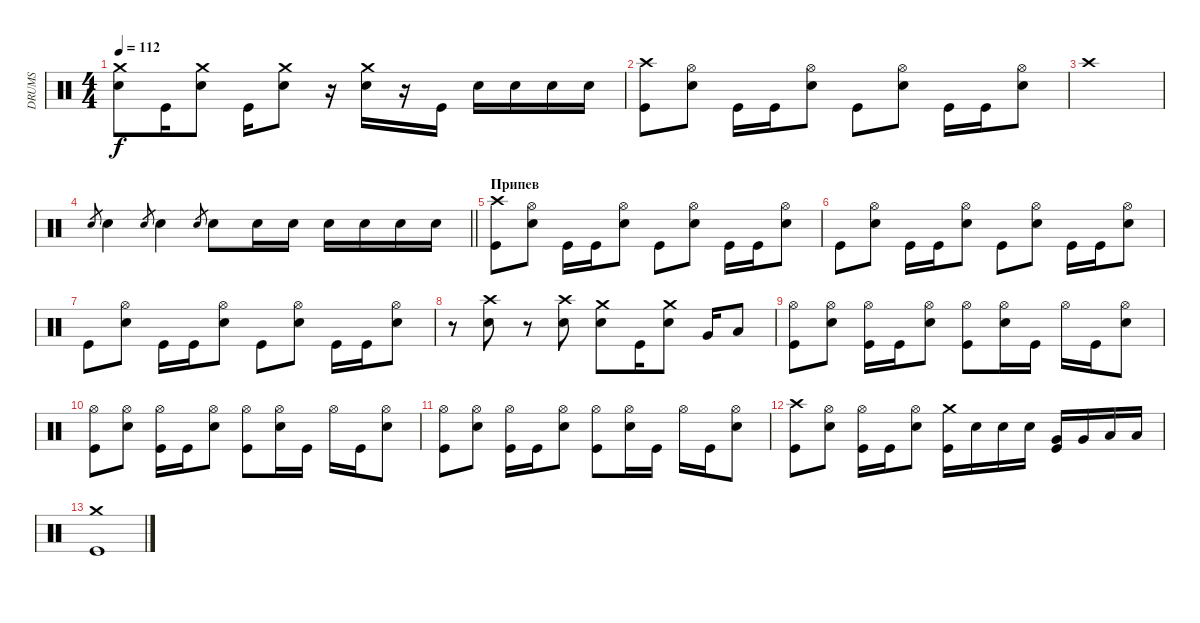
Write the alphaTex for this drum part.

\track ("DRUMS" "DRUMS") {instrument percussion}
\staff {score}
\articulation defaults
\ts (4 4)
\tempo 112
\clef neutral
\ks c
("Crash medium (hit)" "Snare (hit) 2").8{dy f} "Kick (hit)".16 ("Crash medium (hit)" "Snare (hit) 2").8 "Kick (hit)".16 ("Crash medium (hit)" "Snare (hit) 2").8 r.16 ("Crash medium (hit)" "Snare (hit) 2").16 r.16 "Kick (hit)".16 "Snare (hit) 2".16 "Snare (hit) 2".16 "Snare (hit) 2".16 "Snare (hit) 2".16 |
("Crash high (hit)" "Kick (hit)").8 ("Hi-Hat (open)" "Snare (hit) 2").8 "Kick (hit)".16 "Kick (hit)".16 ("Hi-Hat (open)" "Snare (hit) 2").8 "Kick (hit)".8 ("Hi-Hat (open)" "Snare (hit) 2").8 "Kick (hit)".16 "Kick (hit)".16 ("Hi-Hat (open)" "Snare (hit) 2").8 |
"Crash high (hit)".1 |
\barLineRight lightlight "Snare (hit) 2".8{gr} "Snare (hit) 2".4 "Snare (hit) 2".8{gr} "Snare (hit) 2".4 "Snare (hit) 2".8{gr} "Snare (hit) 2".8 "Snare (hit) 2".16 "Snare (hit) 2".16 "Snare (hit) 2".16 "Snare (hit) 2".16 "Snare (hit) 2".16 "Snare (hit) 2".16
|
\section ("" "Припев")
("Crash high (hit)" "Kick (hit)").8 ("Hi-Hat (open)" "Snare (hit) 2").8 "Kick (hit)".16 "Kick (hit)".16 ("Hi-Hat (open)" "Snare (hit) 2").8 "Kick (hit)".8 ("Hi-Hat (open)" "Snare (hit) 2").8 "Kick (hit)".16 "Kick (hit)".16 ("Hi-Hat (open)" "Snare (hit) 2").8 |
"Kick (hit)".8 ("Hi-Hat (open)" "Snare (hit) 2").8 "Kick (hit)".16 "Kick (hit)".16 ("Hi-Hat (open)" "Snare (hit) 2").8 "Kick (hit)".8 ("Hi-Hat (open)" "Snare (hit) 2").8 "Kick (hit)".16 "Kick (hit)".16 ("Hi-Hat (open)" "Snare (hit) 2").8 |
"Kick (hit)".8 ("Hi-Hat (open)" "Snare (hit) 2").8 "Kick (hit)".16 "Kick (hit)".16 ("Hi-Hat (open)" "Snare (hit) 2").8 "Kick (hit)".8 ("Hi-Hat (open)" "Snare (hit) 2").8 "Kick (hit)".16 "Kick (hit)".16 ("Hi-Hat (open)" "Snare (hit) 2").8 |
r.8 ("Crash high (hit)" "Snare (hit) 2").8 r.8 ("Crash high (hit)" "Snare (hit) 2").8 ("Crash medium (hit)" "Snare (hit) 2").8 "Kick (hit)".16 ("Crash medium (hit)" "Snare (hit) 2").8 "Very Low Tom (hit)".16 "Low Floor Tom (hit)".8 |
("Hi-Hat (open)" "Kick (hit)").8 ("Hi-Hat (open)" "Snare (hit) 2").8 ("Hi-Hat (open)" "Kick (hit)").16 "Kick (hit)".16 ("Hi-Hat (open)" "Snare (hit) 2").8 ("Hi-Hat (open)" "Kick (hit)").8 ("Hi-Hat (open)" "Snare (hit) 2").16 "Kick (hit)".16 "Hi-Hat (open)".16 "Kick (hit)".16 ("Hi-Hat (open)" "Snare (hit) 2").8 |
("Hi-Hat (open)" "Kick (hit)").8 ("Hi-Hat (open)" "Snare (hit) 2").8 ("Hi-Hat (open)" "Kick (hit)").16 "Kick (hit)".16 ("Hi-Hat (open)" "Snare (hit) 2").8 ("Hi-Hat (open)" "Kick (hit)").8 ("Hi-Hat (open)" "Snare (hit) 2").16 "Kick (hit)".16 "Hi-Hat (open)".16 "Kick (hit)".16 ("Hi-Hat (open)" "Snare (hit) 2").8 |
("Hi-Hat (open)" "Kick (hit)").8 ("Hi-Hat (open)" "Snare (hit) 2").8 ("Hi-Hat (open)" "Kick (hit)").16 "Kick (hit)".16 ("Hi-Hat (open)" "Snare (hit) 2").8 ("Hi-Hat (open)" "Kick (hit)").8 ("Hi-Hat (open)" "Snare (hit) 2").16 "Kick (hit)".16 "Hi-Hat (open)".16 "Kick (hit)".16 ("Hi-Hat (open)" "Snare (hit) 2").8 |
("Crash high (hit)" "Kick (hit)").8 ("Hi-Hat (open)" "Snare (hit) 2").8 ("Hi-Hat (open)" "Kick (hit)").16 "Kick (hit)".16 ("Hi-Hat (open)" "Snare (hit) 2").8 ("Crash medium (hit)" "Kick (hit)").16 "Snare (hit) 2".16 "Snare (hit) 2".16 "Snare (hit) 2".16 ("Very Low Tom (hit)" "Kick (hit)").16 "Very Low Tom (hit)".16 "Low Floor Tom (hit)".16 "Low Floor Tom (hit)".16 |
("Crash medium (hit)" "Kick (hit)").1
